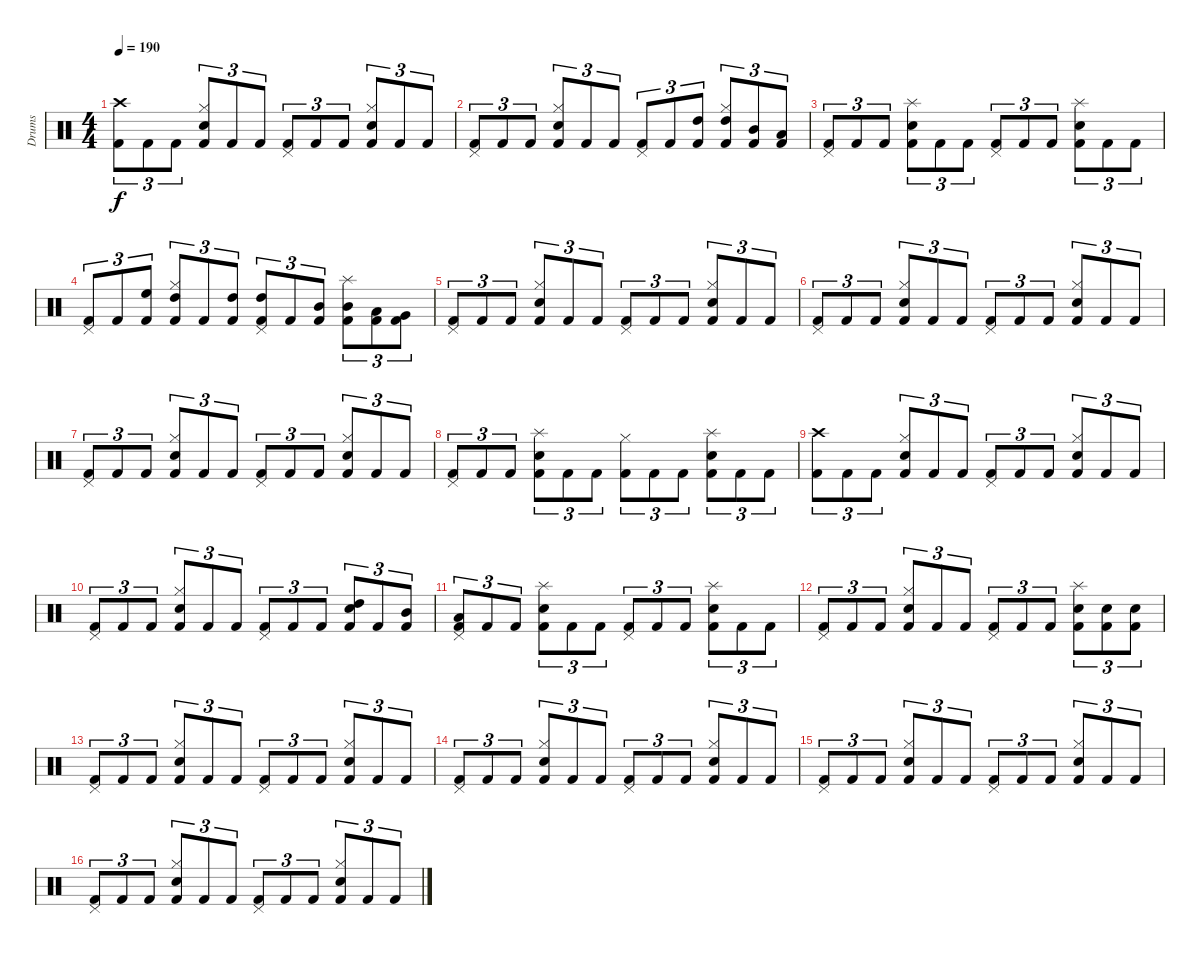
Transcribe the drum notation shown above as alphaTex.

\track ("Drums" "Drums") {instrument percussion}
\staff {score}
\articulation defaults
\ts (4 4)
\tempo 190
\clef neutral
\ks c
("Crash high (hit)" "Kick (hit) 2").8{tu (3 2) dy f} "Kick (hit) 2".8{tu (3 2)} "Kick (hit) 2".8{tu (3 2)} ("Hi-Hat (closed)" "Snare (hit) 2" "Kick (hit) 2").8{tu (3 2)} "Kick (hit) 2".8{tu (3 2)} "Kick (hit) 2".8{tu (3 2)} ("Pedal Hi-Hat (hit)" "Kick (hit) 2").8{tu (3 2)} "Kick (hit) 2".8{tu (3 2)} "Kick (hit) 2".8{tu (3 2)} ("Hi-Hat (closed)" "Snare (hit) 2" "Kick (hit) 2").8{tu (3 2)} "Kick (hit) 2".8{tu (3 2)} "Kick (hit) 2".8{tu (3 2)} |
("Pedal Hi-Hat (hit)" "Kick (hit) 2").8{tu (3 2)} "Kick (hit) 2".8{tu (3 2)} "Kick (hit) 2".8{tu (3 2)} ("Hi-Hat (closed)" "Snare (hit) 2" "Kick (hit) 2").8{tu (3 2)} "Kick (hit) 2".8{tu (3 2)} "Kick (hit) 2".8{tu (3 2)} ("Pedal Hi-Hat (hit)" "Kick (hit) 2").8{tu (3 2)} "Kick (hit) 2".8{tu (3 2)} ("High Tom (hit)" "Kick (hit) 2").8{tu (3 2)} ("Hi-Hat (closed)" "High Tom (hit)" "Kick (hit) 2").8{tu (3 2)} ("Mid Tom (hit)" "Kick (hit) 2").8{tu (3 2)} ("Low Tom (hit)" "Kick (hit) 2").8{tu (3 2)} |
("Pedal Hi-Hat (hit)" "Kick (hit) 2").8{tu (3 2)} "Kick (hit) 2".8{tu (3 2)} "Kick (hit) 2".8{tu (3 2)} ("Splash (hit)" "Snare (hit) 2" "Kick (hit) 2").8{tu (3 2)} "Kick (hit) 2".8{tu (3 2)} "Kick (hit) 2".8{tu (3 2)} ("Pedal Hi-Hat (hit)" "Kick (hit) 2").8{tu (3 2)} "Kick (hit) 2".8{tu (3 2)} "Kick (hit) 2".8{tu (3 2)} ("Splash (hit)" "Snare (hit) 2" "Kick (hit) 2").8{tu (3 2)} "Kick (hit) 2".8{tu (3 2)} "Kick (hit) 2".8{tu (3 2)} |
("Pedal Hi-Hat (hit)" "Kick (hit) 2").8{tu (3 2)} "Kick (hit) 2".8{tu (3 2)} ("High Floor Tom (hit)" "Kick (hit) 2").8{tu (3 2)} ("Hi-Hat (closed)" "High Tom (hit)" "Kick (hit) 2").8{tu (3 2)} "Kick (hit) 2".8{tu (3 2)} ("High Tom (hit)" "Kick (hit) 2").8{tu (3 2)} ("Pedal Hi-Hat (hit)" "High Tom (hit)" "Kick (hit) 2").8{tu (3 2)} "Kick (hit) 2".8{tu (3 2)} ("Mid Tom (hit)" "Kick (hit) 2").8{tu (3 2)} ("Splash (hit)" "Mid Tom (hit)" "Kick (hit) 2").8{tu (3 2)} ("Low Tom (hit)" "Kick (hit) 2").8{tu (3 2)} ("Very Low Tom (hit)" "Kick (hit) 2").8{tu (3 2)} |
("Pedal Hi-Hat (hit)" "Kick (hit) 2").8{tu (3 2)} "Kick (hit) 2".8{tu (3 2)} "Kick (hit) 2".8{tu (3 2)} ("Hi-Hat (closed)" "Snare (hit) 2" "Kick (hit) 2").8{tu (3 2)} "Kick (hit) 2".8{tu (3 2)} "Kick (hit) 2".8{tu (3 2)} ("Pedal Hi-Hat (hit)" "Kick (hit) 2").8{tu (3 2)} "Kick (hit) 2".8{tu (3 2)} "Kick (hit) 2".8{tu (3 2)} ("Hi-Hat (closed)" "Snare (hit) 2" "Kick (hit) 2").8{tu (3 2)} "Kick (hit) 2".8{tu (3 2)} "Kick (hit) 2".8{tu (3 2)} |
("Pedal Hi-Hat (hit)" "Kick (hit) 2").8{tu (3 2)} "Kick (hit) 2".8{tu (3 2)} "Kick (hit) 2".8{tu (3 2)} ("Hi-Hat (closed)" "Snare (hit) 2" "Kick (hit) 2").8{tu (3 2)} "Kick (hit) 2".8{tu (3 2)} "Kick (hit) 2".8{tu (3 2)} ("Pedal Hi-Hat (hit)" "Kick (hit) 2").8{tu (3 2)} "Kick (hit) 2".8{tu (3 2)} "Kick (hit) 2".8{tu (3 2)} ("Hi-Hat (closed)" "Snare (hit) 2" "Kick (hit) 2").8{tu (3 2)} "Kick (hit) 2".8{tu (3 2)} "Kick (hit) 2".8{tu (3 2)} |
("Pedal Hi-Hat (hit)" "Kick (hit) 2").8{tu (3 2)} "Kick (hit) 2".8{tu (3 2)} "Kick (hit) 2".8{tu (3 2)} ("Hi-Hat (closed)" "Snare (hit) 2" "Kick (hit) 2").8{tu (3 2)} "Kick (hit) 2".8{tu (3 2)} "Kick (hit) 2".8{tu (3 2)} ("Pedal Hi-Hat (hit)" "Kick (hit) 2").8{tu (3 2)} "Kick (hit) 2".8{tu (3 2)} "Kick (hit) 2".8{tu (3 2)} ("Hi-Hat (closed)" "Snare (hit) 2" "Kick (hit) 2").8{tu (3 2)} "Kick (hit) 2".8{tu (3 2)} "Kick (hit) 2".8{tu (3 2)} |
("Pedal Hi-Hat (hit)" "Kick (hit) 2").8{tu (3 2)} "Kick (hit) 2".8{tu (3 2)} "Kick (hit) 2".8{tu (3 2)} ("Splash (hit)" "Snare (hit) 2" "Kick (hit) 2").8{tu (3 2)} "Kick (hit) 2".8{tu (3 2)} "Kick (hit) 2".8{tu (3 2)} ("Hi-Hat (closed)" "Kick (hit) 2").8{tu (3 2)} "Kick (hit) 2".8{tu (3 2)} "Kick (hit) 2".8{tu (3 2)} ("Splash (hit)" "Snare (hit) 2" "Kick (hit) 2").8{tu (3 2)} "Kick (hit) 2".8{tu (3 2)} "Kick (hit) 2".8{tu (3 2)} |
("Crash high (hit)" "Kick (hit) 2").8{tu (3 2)} "Kick (hit) 2".8{tu (3 2)} "Kick (hit) 2".8{tu (3 2)} ("Hi-Hat (closed)" "Snare (hit) 2" "Kick (hit) 2").8{tu (3 2)} "Kick (hit) 2".8{tu (3 2)} "Kick (hit) 2".8{tu (3 2)} ("Pedal Hi-Hat (hit)" "Kick (hit) 2").8{tu (3 2)} "Kick (hit) 2".8{tu (3 2)} "Kick (hit) 2".8{tu (3 2)} ("Hi-Hat (closed)" "Snare (hit) 2" "Kick (hit) 2").8{tu (3 2)} "Kick (hit) 2".8{tu (3 2)} "Kick (hit) 2".8{tu (3 2)} |
("Pedal Hi-Hat (hit)" "Kick (hit) 2").8{tu (3 2)} "Kick (hit) 2".8{tu (3 2)} "Kick (hit) 2".8{tu (3 2)} ("Hi-Hat (closed)" "Snare (hit) 2" "Kick (hit) 2").8{tu (3 2)} "Kick (hit) 2".8{tu (3 2)} "Kick (hit) 2".8{tu (3 2)} ("Pedal Hi-Hat (hit)" "Kick (hit) 2").8{tu (3 2)} "Kick (hit) 2".8{tu (3 2)} "Kick (hit) 2".8{tu (3 2)} ("High Tom (hit)" "Snare (hit) 2" "Kick (hit) 2").8{tu (3 2)} "Kick (hit) 2".8{tu (3 2)} ("Mid Tom (hit)" "Kick (hit) 2").8{tu (3 2)} |
("Pedal Hi-Hat (hit)" "Low Tom (hit)" "Kick (hit) 2").8{tu (3 2)} "Kick (hit) 2".8{tu (3 2)} "Kick (hit) 2".8{tu (3 2)} ("Splash (hit)" "Snare (hit) 2" "Kick (hit) 2").8{tu (3 2)} "Kick (hit) 2".8{tu (3 2)} "Kick (hit) 2".8{tu (3 2)} ("Pedal Hi-Hat (hit)" "Kick (hit) 2").8{tu (3 2)} "Kick (hit) 2".8{tu (3 2)} "Kick (hit) 2".8{tu (3 2)} ("Splash (hit)" "Snare (hit) 2" "Kick (hit) 2").8{tu (3 2)} "Kick (hit) 2".8{tu (3 2)} "Kick (hit) 2".8{tu (3 2)} |
("Pedal Hi-Hat (hit)" "Kick (hit) 2").8{tu (3 2)} "Kick (hit) 2".8{tu (3 2)} "Kick (hit) 2".8{tu (3 2)} ("Hi-Hat (closed)" "Snare (hit) 2" "Kick (hit) 2").8{tu (3 2)} "Kick (hit) 2".8{tu (3 2)} "Kick (hit) 2".8{tu (3 2)} ("Pedal Hi-Hat (hit)" "Kick (hit) 2").8{tu (3 2)} "Kick (hit) 2".8{tu (3 2)} "Kick (hit) 2".8{tu (3 2)} ("Splash (hit)" "Snare (hit) 2" "Kick (hit) 2").8{tu (3 2)} ("Snare (hit) 2" "Kick (hit) 2").8{tu (3 2)} ("Snare (hit) 2" "Kick (hit) 2").8{tu (3 2)} |
("Pedal Hi-Hat (hit)" "Kick (hit) 2").8{tu (3 2)} "Kick (hit) 2".8{tu (3 2)} "Kick (hit) 2".8{tu (3 2)} ("Hi-Hat (closed)" "Snare (hit) 2" "Kick (hit) 2").8{tu (3 2)} "Kick (hit) 2".8{tu (3 2)} "Kick (hit) 2".8{tu (3 2)} ("Pedal Hi-Hat (hit)" "Kick (hit) 2").8{tu (3 2)} "Kick (hit) 2".8{tu (3 2)} "Kick (hit) 2".8{tu (3 2)} ("Hi-Hat (closed)" "Snare (hit) 2" "Kick (hit) 2").8{tu (3 2)} "Kick (hit) 2".8{tu (3 2)} "Kick (hit) 2".8{tu (3 2)} |
("Pedal Hi-Hat (hit)" "Kick (hit) 2").8{tu (3 2)} "Kick (hit) 2".8{tu (3 2)} "Kick (hit) 2".8{tu (3 2)} ("Hi-Hat (closed)" "Snare (hit) 2" "Kick (hit) 2").8{tu (3 2)} "Kick (hit) 2".8{tu (3 2)} "Kick (hit) 2".8{tu (3 2)} ("Pedal Hi-Hat (hit)" "Kick (hit) 2").8{tu (3 2)} "Kick (hit) 2".8{tu (3 2)} "Kick (hit) 2".8{tu (3 2)} ("Hi-Hat (closed)" "Snare (hit) 2" "Kick (hit) 2").8{tu (3 2)} "Kick (hit) 2".8{tu (3 2)} "Kick (hit) 2".8{tu (3 2)} |
("Pedal Hi-Hat (hit)" "Kick (hit) 2").8{tu (3 2)} "Kick (hit) 2".8{tu (3 2)} "Kick (hit) 2".8{tu (3 2)} ("Hi-Hat (closed)" "Snare (hit) 2" "Kick (hit) 2").8{tu (3 2)} "Kick (hit) 2".8{tu (3 2)} "Kick (hit) 2".8{tu (3 2)} ("Pedal Hi-Hat (hit)" "Kick (hit) 2").8{tu (3 2)} "Kick (hit) 2".8{tu (3 2)} "Kick (hit) 2".8{tu (3 2)} ("Hi-Hat (closed)" "Snare (hit) 2" "Kick (hit) 2").8{tu (3 2)} "Kick (hit) 2".8{tu (3 2)} "Kick (hit) 2".8{tu (3 2)} |
("Pedal Hi-Hat (hit)" "Kick (hit) 2").8{tu (3 2)} "Kick (hit) 2".8{tu (3 2)} "Kick (hit) 2".8{tu (3 2)} ("Hi-Hat (closed)" "Snare (hit) 2" "Kick (hit) 2").8{tu (3 2)} "Kick (hit) 2".8{tu (3 2)} "Kick (hit) 2".8{tu (3 2)} ("Pedal Hi-Hat (hit)" "Kick (hit) 2").8{tu (3 2)} "Kick (hit) 2".8{tu (3 2)} "Kick (hit) 2".8{tu (3 2)} ("Hi-Hat (closed)" "Snare (hit) 2" "Kick (hit) 2").8{tu (3 2)} "Kick (hit) 2".8{tu (3 2)} "Kick (hit) 2".8{tu (3 2)}
